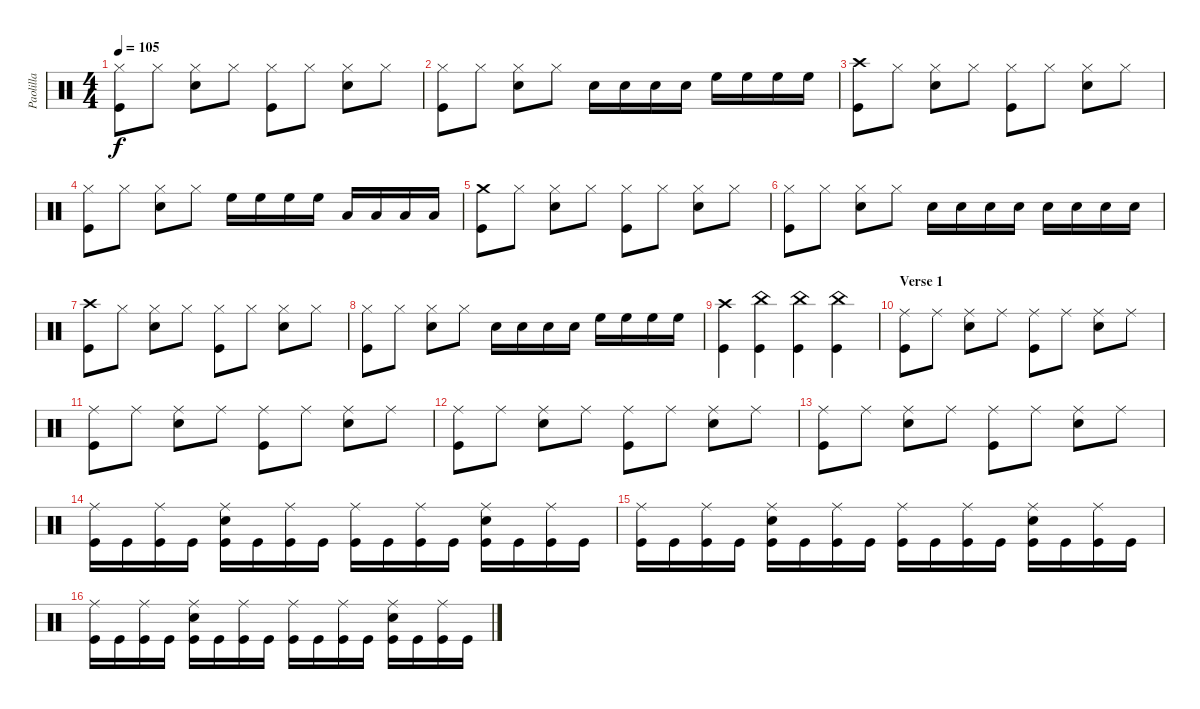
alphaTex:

\track ("Paolilla" "Paolilla") {instrument percussion}
\staff {score}
\articulation defaults
\ts (4 4)
\tempo 105
\clef neutral
\ks c
("Hi-Hat (closed)" "Kick (hit)").8{dy f} "Hi-Hat (closed)".8 ("Hi-Hat (closed)" "Snare (hit) 2").8 "Hi-Hat (closed)".8 ("Hi-Hat (closed)" "Kick (hit)").8 "Hi-Hat (closed)".8 ("Hi-Hat (closed)" "Snare (hit) 2").8 "Hi-Hat (closed)".8 |
("Hi-Hat (closed)" "Kick (hit)").8 "Hi-Hat (closed)".8 ("Hi-Hat (closed)" "Snare (hit) 2").8 "Hi-Hat (closed)".8 "Snare (hit) 2".16 "Snare (hit) 2".16 "Snare (hit) 2".16 "Snare (hit) 2".16 "High Floor Tom (hit)".16 "High Floor Tom (hit)".16 "High Floor Tom (hit)".16 "High Floor Tom (hit)".16 |
("Crash high (hit)" "Kick (hit)").8 "Hi-Hat (closed)".8 ("Hi-Hat (closed)" "Snare (hit) 2").8 "Hi-Hat (closed)".8 ("Hi-Hat (closed)" "Kick (hit)").8 "Hi-Hat (closed)".8 ("Hi-Hat (closed)" "Snare (hit) 2").8 "Hi-Hat (closed)".8 |
("Hi-Hat (closed)" "Kick (hit)").8 "Hi-Hat (closed)".8 ("Hi-Hat (closed)" "Snare (hit) 2").8 "Hi-Hat (closed)".8 "High Floor Tom (hit)".16 "High Floor Tom (hit)".16 "High Floor Tom (hit)".16 "High Floor Tom (hit)".16 "Low Tom (hit)".16 "Low Tom (hit)".16 "Low Tom (hit)".16 "Low Tom (hit)".16 |
("Crash medium (hit)" "Kick (hit)").8 "Hi-Hat (closed)".8 ("Hi-Hat (closed)" "Snare (hit) 2").8 "Hi-Hat (closed)".8 ("Hi-Hat (closed)" "Kick (hit)").8 "Hi-Hat (closed)".8 ("Hi-Hat (closed)" "Snare (hit) 2").8 "Hi-Hat (closed)".8 |
("Hi-Hat (closed)" "Kick (hit)").8 "Hi-Hat (closed)".8 ("Hi-Hat (closed)" "Snare (hit) 2").8 "Hi-Hat (closed)".8 "Snare (hit) 2".16 "Snare (hit) 2".16 "Snare (hit) 2".16 "Snare (hit) 2".16 "Snare (hit) 2".16 "Snare (hit) 2".16 "Snare (hit) 2".16 "Snare (hit) 2".16 |
("Crash high (hit)" "Kick (hit)").8 "Hi-Hat (closed)".8 ("Hi-Hat (closed)" "Snare (hit) 2").8 "Hi-Hat (closed)".8 ("Hi-Hat (closed)" "Kick (hit)").8 "Hi-Hat (closed)".8 ("Hi-Hat (closed)" "Snare (hit) 2").8 "Hi-Hat (closed)".8 |
("Hi-Hat (closed)" "Kick (hit)").8 "Hi-Hat (closed)".8 ("Hi-Hat (closed)" "Snare (hit) 2").8 "Hi-Hat (closed)".8 "Snare (hit) 2".16 "Snare (hit) 2".16 "Snare (hit) 2".16 "Snare (hit) 2".16 "High Floor Tom (hit)".16 "High Floor Tom (hit)".16 "High Floor Tom (hit)".16 "High Floor Tom (hit)".16 |
("Crash high (hit)" "Kick (hit)").4 ("China (hit)" "Kick (hit)").4 ("China (hit)" "Kick (hit)").4 ("China (hit)" "Kick (hit)").4 |
\section ("" "Verse 1")
("Ride (middle)" "Kick (hit)").8 "Ride (middle)".8 ("Ride (middle)" "Snare (hit) 2").8 "Ride (middle)".8 ("Ride (middle)" "Kick (hit)").8 "Ride (middle)".8 ("Ride (middle)" "Snare (hit) 2").8 "Ride (middle)".8 |
("Ride (middle)" "Kick (hit)").8 "Ride (middle)".8 ("Ride (middle)" "Snare (hit) 2").8 "Ride (middle)".8 ("Ride (middle)" "Kick (hit)").8 "Ride (middle)".8 ("Ride (middle)" "Snare (hit) 2").8 "Ride (middle)".8 |
("Ride (middle)" "Kick (hit)").8 "Ride (middle)".8 ("Ride (middle)" "Snare (hit) 2").8 "Ride (middle)".8 ("Ride (middle)" "Kick (hit)").8 "Ride (middle)".8 ("Ride (middle)" "Snare (hit) 2").8 "Ride (middle)".8 |
("Ride (middle)" "Kick (hit)").8 "Ride (middle)".8 ("Ride (middle)" "Snare (hit) 2").8 "Ride (middle)".8 ("Ride (middle)" "Kick (hit)").8 "Ride (middle)".8 ("Ride (middle)" "Snare (hit) 2").8 "Ride (middle)".8 |
("Ride (middle)" "Kick (hit)").16 "Kick (hit)".16 ("Ride (middle)" "Kick (hit)").16 "Kick (hit)".16 ("Ride (middle)" "Snare (hit) 2" "Kick (hit)").16 "Kick (hit)".16 ("Ride (middle)" "Kick (hit)").16 "Kick (hit)".16 ("Ride (middle)" "Kick (hit)").16 "Kick (hit)".16 ("Ride (middle)" "Kick (hit)").16 "Kick (hit)".16 ("Ride (middle)" "Snare (hit) 2" "Kick (hit)").16 "Kick (hit)".16 ("Ride (middle)" "Kick (hit)").16 "Kick (hit)".16 |
("Ride (middle)" "Kick (hit)").16 "Kick (hit)".16 ("Ride (middle)" "Kick (hit)").16 "Kick (hit)".16 ("Ride (middle)" "Snare (hit) 2" "Kick (hit)").16 "Kick (hit)".16 ("Ride (middle)" "Kick (hit)").16 "Kick (hit)".16 ("Ride (middle)" "Kick (hit)").16 "Kick (hit)".16 ("Ride (middle)" "Kick (hit)").16 "Kick (hit)".16 ("Ride (middle)" "Snare (hit) 2" "Kick (hit)").16 "Kick (hit)".16 ("Ride (middle)" "Kick (hit)").16 "Kick (hit)".16 |
("Ride (middle)" "Kick (hit)").16 "Kick (hit)".16 ("Ride (middle)" "Kick (hit)").16 "Kick (hit)".16 ("Ride (middle)" "Snare (hit) 2" "Kick (hit)").16 "Kick (hit)".16 ("Ride (middle)" "Kick (hit)").16 "Kick (hit)".16 ("Ride (middle)" "Kick (hit)").16 "Kick (hit)".16 ("Ride (middle)" "Kick (hit)").16 "Kick (hit)".16 ("Ride (middle)" "Snare (hit) 2" "Kick (hit)").16 "Kick (hit)".16 ("Ride (middle)" "Kick (hit)").16 "Kick (hit)".16
